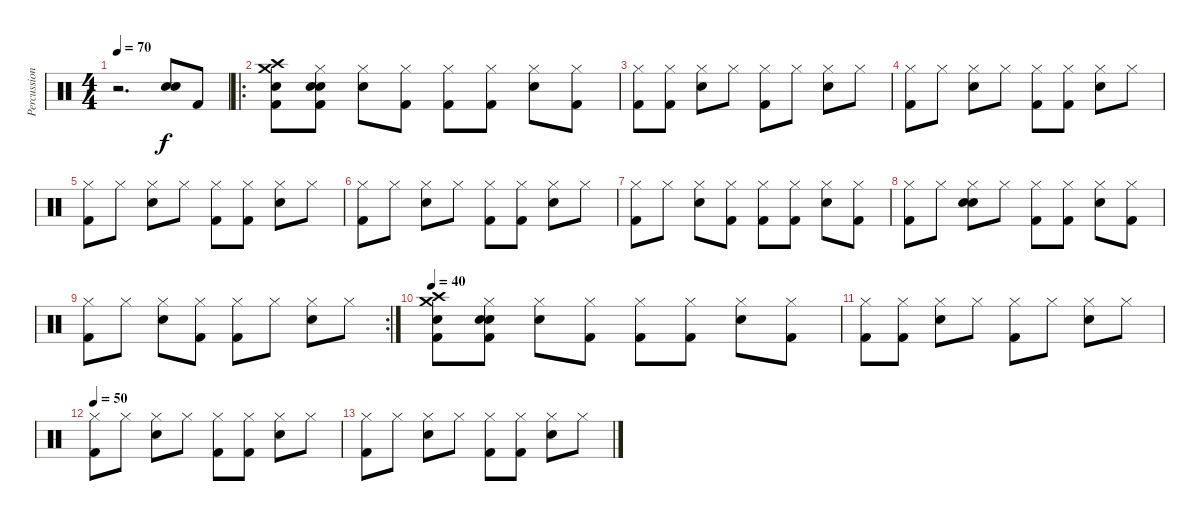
\track ("Percussion" "Percussion") {instrument percussion}
\staff {score}
\articulation defaults
\ts (4 4)
\tempo 70
\clef neutral
\ks c
r.2{d dy f} ("Snare (hit) 2" "Snare (hit)").8 "Kick (hit) 2".8 |
\ro
("Crash high (hit)" "Crash medium (hit)" "Snare (hit) 2" "Kick (hit) 2").8 ("Hi-Hat (closed)" "Snare (hit)" "Snare (hit)" "Kick (hit) 2").8 ("Hi-Hat (closed)" "Snare (hit) 2").8 ("Hi-Hat (closed)" "Kick (hit) 2").8 ("Hi-Hat (closed)" "Kick (hit) 2").8 ("Hi-Hat (closed)" "Kick (hit) 2").8 ("Hi-Hat (closed)" "Snare (hit) 2").8 ("Hi-Hat (closed)" "Kick (hit) 2").8 |
("Hi-Hat (closed)" "Kick (hit) 2").8 ("Hi-Hat (closed)" "Kick (hit) 2").8 ("Hi-Hat (closed)" "Snare (hit) 2").8 "Hi-Hat (closed)".8 ("Hi-Hat (closed)" "Kick (hit) 2").8 "Hi-Hat (closed)".8 ("Hi-Hat (closed)" "Snare (hit) 2").8 "Hi-Hat (closed)".8 |
("Hi-Hat (closed)" "Kick (hit) 2").8 "Hi-Hat (closed)".8 ("Hi-Hat (closed)" "Snare (hit) 2").8 "Hi-Hat (closed)".8 ("Hi-Hat (closed)" "Kick (hit) 2").8 ("Hi-Hat (closed)" "Kick (hit) 2").8 ("Hi-Hat (closed)" "Snare (hit) 2").8 "Hi-Hat (closed)".8 |
("Hi-Hat (closed)" "Kick (hit) 2").8 "Hi-Hat (closed)".8 ("Hi-Hat (closed)" "Snare (hit) 2").8 "Hi-Hat (closed)".8 ("Hi-Hat (closed)" "Kick (hit) 2").8 ("Hi-Hat (closed)" "Kick (hit) 2").8 ("Hi-Hat (closed)" "Snare (hit) 2").8 "Hi-Hat (closed)".8 |
("Hi-Hat (closed)" "Kick (hit) 2").8 "Hi-Hat (closed)".8 ("Hi-Hat (closed)" "Snare (hit) 2").8 "Hi-Hat (closed)".8 ("Hi-Hat (closed)" "Kick (hit) 2").8 ("Hi-Hat (closed)" "Kick (hit) 2").8 ("Hi-Hat (closed)" "Snare (hit) 2").8 "Hi-Hat (closed)".8 |
("Hi-Hat (closed)" "Kick (hit) 2").8 "Hi-Hat (closed)".8 ("Hi-Hat (closed)" "Snare (hit) 2").8 ("Hi-Hat (closed)" "Kick (hit) 2").8 ("Hi-Hat (closed)" "Kick (hit) 2").8 ("Hi-Hat (closed)" "Kick (hit) 2").8 ("Hi-Hat (closed)" "Snare (hit) 2").8 ("Hi-Hat (closed)" "Kick (hit) 2").8 |
("Hi-Hat (closed)" "Kick (hit) 2").8 "Hi-Hat (closed)".8 ("Hi-Hat (closed)" "Snare (hit) 2" "Snare (hit)").8 "Hi-Hat (closed)".8 ("Hi-Hat (closed)" "Kick (hit) 2").8 ("Hi-Hat (closed)" "Kick (hit) 2").8 ("Hi-Hat (closed)" "Snare (hit) 2").8 ("Hi-Hat (closed)" "Kick (hit) 2").8 |
\rc 2
("Hi-Hat (closed)" "Kick (hit) 2").8 "Hi-Hat (closed)".8 ("Hi-Hat (closed)" "Snare (hit) 2").8 ("Hi-Hat (closed)" "Kick (hit) 2").8 ("Hi-Hat (closed)" "Kick (hit) 2").8 "Hi-Hat (closed)".8 ("Hi-Hat (closed)" "Snare (hit) 2").8 "Hi-Hat (closed)".8 |
\tempo 50
\tempo 40
("Crash high (hit)" "Crash medium (hit)" "Snare (hit) 2" "Kick (hit) 2").8 ("Hi-Hat (closed)" "Snare (hit)" "Snare (hit)" "Kick (hit) 2").8 ("Hi-Hat (closed)" "Snare (hit) 2").8 ("Hi-Hat (closed)" "Kick (hit) 2").8 ("Hi-Hat (closed)" "Kick (hit) 2").8 ("Hi-Hat (closed)" "Kick (hit) 2").8 ("Hi-Hat (closed)" "Snare (hit) 2").8 ("Hi-Hat (closed)" "Kick (hit) 2").8 |
("Hi-Hat (closed)" "Kick (hit) 2").8 ("Hi-Hat (closed)" "Kick (hit) 2").8 ("Hi-Hat (closed)" "Snare (hit) 2").8 "Hi-Hat (closed)".8 ("Hi-Hat (closed)" "Kick (hit) 2").8 "Hi-Hat (closed)".8 ("Hi-Hat (closed)" "Snare (hit) 2").8 "Hi-Hat (closed)".8 |
\tempo 50
("Hi-Hat (closed)" "Kick (hit) 2").8 "Hi-Hat (closed)".8 ("Hi-Hat (closed)" "Snare (hit) 2").8 "Hi-Hat (closed)".8 ("Hi-Hat (closed)" "Kick (hit) 2").8 ("Hi-Hat (closed)" "Kick (hit) 2").8 ("Hi-Hat (closed)" "Snare (hit) 2").8 "Hi-Hat (closed)".8 |
("Hi-Hat (closed)" "Kick (hit) 2").8 "Hi-Hat (closed)".8 ("Hi-Hat (closed)" "Snare (hit) 2").8 "Hi-Hat (closed)".8 ("Hi-Hat (closed)" "Kick (hit) 2").8 ("Hi-Hat (closed)" "Kick (hit) 2").8 ("Hi-Hat (closed)" "Snare (hit) 2").8 "Hi-Hat (closed)".8
